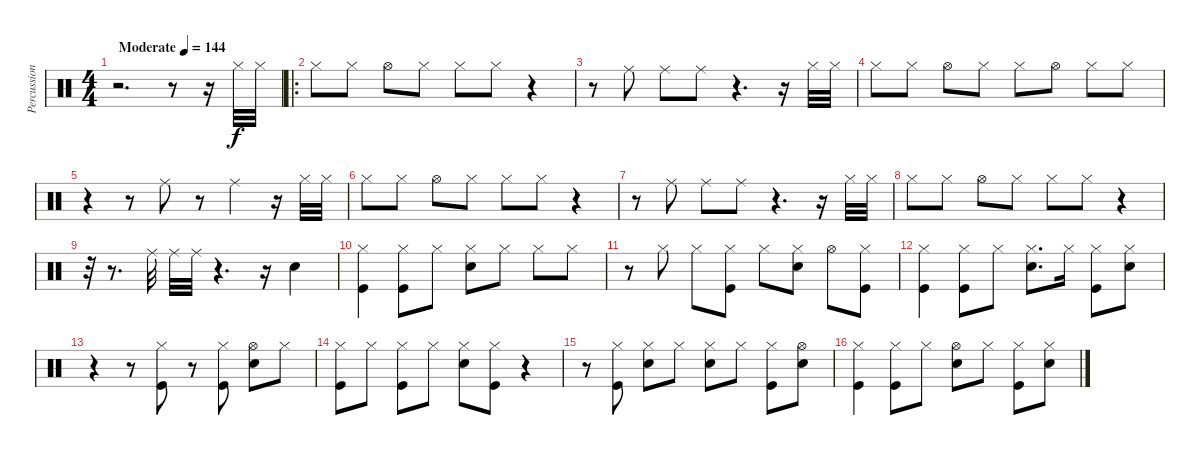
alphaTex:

\track ("Percussions" "Percussion") {instrument percussion}
\staff {score}
\articulation defaults
\ts (4 4)
\tempo (144 "Moderate")
\clef neutral
\ks c
r.2{d dy f} r.8 r.16 "Hi-Hat (closed)".32 "Hi-Hat (closed)".32 |
\ro "Hi-Hat (closed)".8 "Hi-Hat (closed)".8 "Hi-Hat (open)".8 "Hi-Hat (closed)".8 "Hi-Hat (closed)".8 "Hi-Hat (closed)".8
r.4 |
r.8 "Ride (middle)".8 "Ride (middle)".8 "Ride (middle)".8 r.4{d} r.16 "Hi-Hat (closed)".32 "Hi-Hat (closed)".32 |
"Hi-Hat (closed)".8 "Hi-Hat (closed)".8 "Hi-Hat (open)".8 "Hi-Hat (closed)".8 "Hi-Hat (closed)".8 "Hi-Hat (open)".8 "Hi-Hat (closed)".8 "Hi-Hat (closed)".8 |
r.4 r.8 "Ride (middle)".8 r.8 "Ride (middle)".4 r.16 "Hi-Hat (closed)".32 "Hi-Hat (closed)".32 |
"Hi-Hat (closed)".8 "Hi-Hat (closed)".8 "Hi-Hat (open)".8 "Hi-Hat (closed)".8 "Hi-Hat (closed)".8 "Hi-Hat (closed)".8 r.4 |
r.8 "Ride (middle)".8 "Ride (middle)".8 "Ride (middle)".8 r.4{d} r.16 "Hi-Hat (closed)".32 "Hi-Hat (closed)".32 |
"Hi-Hat (closed)".8 "Hi-Hat (closed)".8 "Hi-Hat (open)".8 "Hi-Hat (closed)".8 "Hi-Hat (closed)".8 "Hi-Hat (closed)".8 r.4 |
r.32 r.8{d} "Ride (middle)".32 "Ride (middle)".32 "Ride (middle)".32 r.4{d} r.16 "Snare (hit) 2".4 |
("Hi-Hat (closed)" "Kick (hit)").4 ("Hi-Hat (closed)" "Kick (hit)").8 "Hi-Hat (closed)".8 ("Hi-Hat (closed)" "Snare (hit) 2").8 "Hi-Hat (closed)".8 "Hi-Hat (closed)".8 "Hi-Hat (closed)".8 |
r.8 "Hi-Hat (closed)".8 "Hi-Hat (closed)".8 ("Hi-Hat (closed)" "Kick (hit)").8 "Hi-Hat (closed)".8 ("Hi-Hat (closed)" "Snare (hit) 2").8 "Hi-Hat (open)".8 ("Hi-Hat (closed)" "Kick (hit)").8 |
("Hi-Hat (closed)" "Kick (hit)").4 ("Hi-Hat (closed)" "Kick (hit)").8 "Hi-Hat (closed)".8 ("Hi-Hat (closed)" "Snare (hit) 2").8{d} "Hi-Hat (closed)".16 ("Hi-Hat (closed)" "Kick (hit)").8 ("Hi-Hat (closed)" "Snare (hit) 2").8 |
r.4 r.8 ("Hi-Hat (closed)" "Kick (hit)").8 r.8 ("Hi-Hat (closed)" "Kick (hit)").8 ("Hi-Hat (open)" "Snare (hit) 2").8 "Hi-Hat (closed)".8 |
("Hi-Hat (closed)" "Kick (hit)").8 "Hi-Hat (closed)".8 ("Hi-Hat (closed)" "Kick (hit)").8 "Hi-Hat (closed)".8 ("Hi-Hat (closed)" "Snare (hit) 2").8 ("Hi-Hat (closed)" "Kick (hit)").8 r.4 |
r.8 ("Hi-Hat (closed)" "Kick (hit)").8 ("Hi-Hat (closed)" "Snare (hit) 2").8 "Hi-Hat (closed)".8 ("Hi-Hat (closed)" "Snare (hit) 2").8 "Hi-Hat (closed)".8 ("Hi-Hat (closed)" "Kick (hit)").8 ("Hi-Hat (open)" "Snare (hit) 2").8 |
("Hi-Hat (closed)" "Kick (hit)").4 ("Hi-Hat (closed)" "Kick (hit)").8 "Hi-Hat (closed)".8 ("Hi-Hat (open)" "Snare (hit) 2").8 "Hi-Hat (closed)".8 ("Hi-Hat (closed)" "Kick (hit)").8 ("Hi-Hat (closed)" "Snare (hit) 2").8
